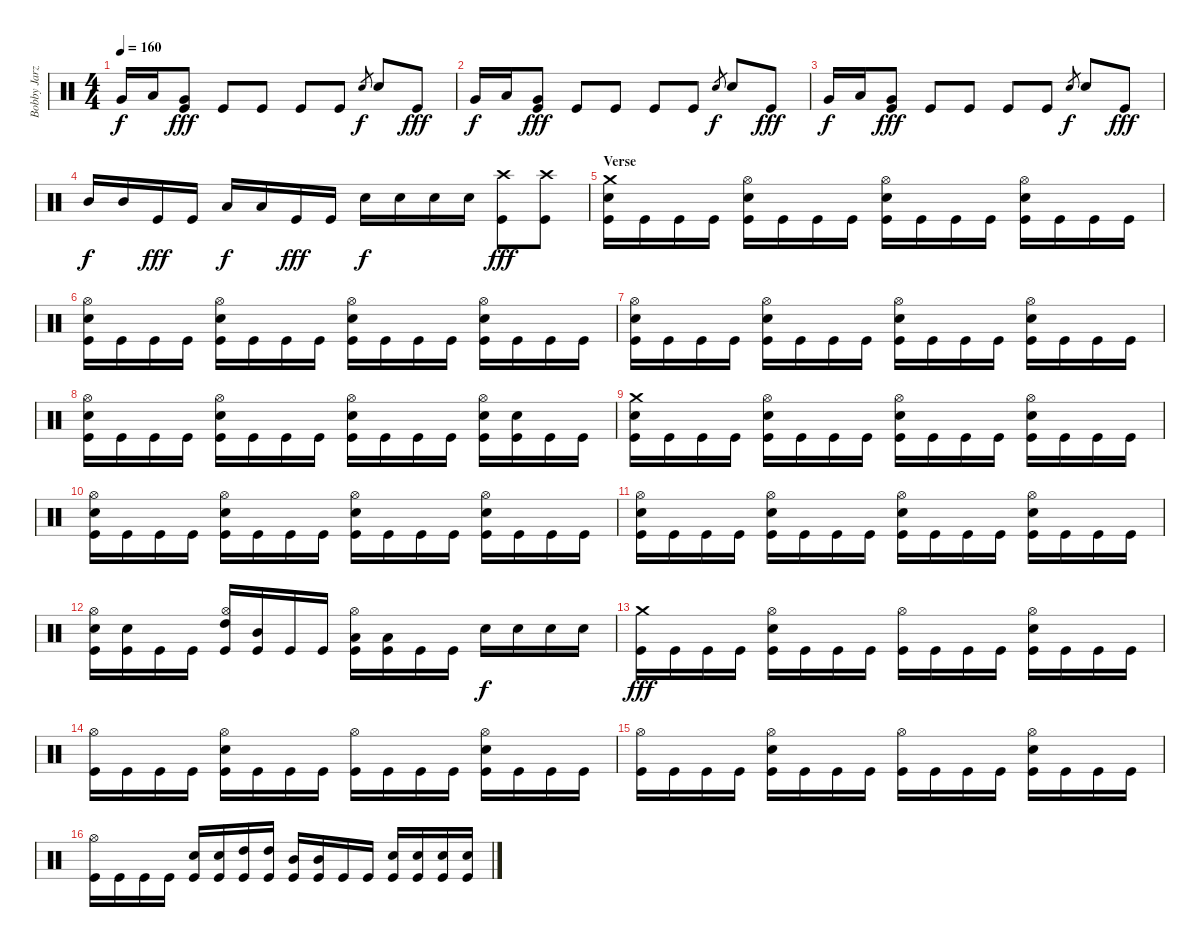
\track ("Bobby Jarzombek" "Bobby Jarz") {instrument percussion}
\staff {score}
\articulation defaults
\ts (4 4)
\tempo 160
\clef neutral
\ks c "Very Low Tom (hit)".16{dy f} "Low Tom (hit)".16
("Very Low Tom (hit)" "Kick (hit)").8{dy fff} "Kick (hit)".8 "Kick (hit)".8 "Kick (hit)".8 "Kick (hit)".8 "Electric Snare (hit)".8{gr dy f} "Electric Snare (hit)".8 "Kick (hit)".8{dy fff} |
"Very Low Tom (hit)".16{dy f} "Low Tom (hit)".16 ("Very Low Tom (hit)" "Kick (hit)").8{dy fff} "Kick (hit)".8 "Kick (hit)".8 "Kick (hit)".8 "Kick (hit)".8 "Electric Snare (hit)".8{gr dy f} "Electric Snare (hit)".8 "Kick (hit)".8{dy fff} |
"Very Low Tom (hit)".16{dy f} "Low Tom (hit)".16 ("Very Low Tom (hit)" "Kick (hit)").8{dy fff} "Kick (hit)".8 "Kick (hit)".8 "Kick (hit)".8 "Kick (hit)".8 "Electric Snare (hit)".8{gr dy f} "Electric Snare (hit)".8 "Kick (hit)".8{dy fff} |
"Mid Tom (hit)".16{dy f} "Mid Tom (hit)".16 "Kick (hit)".16{dy fff} "Kick (hit)".16 "Low Tom (hit)".16{dy f} "Low Tom (hit)".16 "Kick (hit)".16{dy fff} "Kick (hit)".16 "Electric Snare (hit)".16{dy f} "Electric Snare (hit)".16 "Electric Snare (hit)".16 "Electric Snare (hit)".16 ("Crash high (hit)" "Kick (hit)").8{dy fff} ("Crash high (hit)" "Kick (hit)").8 |
\section ("" "Verse")
("Crash medium (hit)" "Electric Snare (hit)" "Kick (hit)").16 "Kick (hit)".16 "Kick (hit)".16 "Kick (hit)".16 ("Hi-Hat (open)" "Electric Snare (hit)" "Kick (hit)").16 "Kick (hit)".16 "Kick (hit)".16 "Kick (hit)".16 ("Hi-Hat (open)" "Electric Snare (hit)" "Kick (hit)").16 "Kick (hit)".16 "Kick (hit)".16 "Kick (hit)".16 ("Hi-Hat (open)" "Electric Snare (hit)" "Kick (hit)").16 "Kick (hit)".16 "Kick (hit)".16 "Kick (hit)".16 |
("Hi-Hat (open)" "Electric Snare (hit)" "Kick (hit)").16 "Kick (hit)".16 "Kick (hit)".16 "Kick (hit)".16 ("Hi-Hat (open)" "Electric Snare (hit)" "Kick (hit)").16 "Kick (hit)".16 "Kick (hit)".16 "Kick (hit)".16 ("Hi-Hat (open)" "Electric Snare (hit)" "Kick (hit)").16 "Kick (hit)".16 "Kick (hit)".16 "Kick (hit)".16 ("Hi-Hat (open)" "Electric Snare (hit)" "Kick (hit)").16 "Kick (hit)".16 "Kick (hit)".16 "Kick (hit)".16 |
("Hi-Hat (open)" "Electric Snare (hit)" "Kick (hit)").16 "Kick (hit)".16 "Kick (hit)".16 "Kick (hit)".16 ("Hi-Hat (open)" "Electric Snare (hit)" "Kick (hit)").16 "Kick (hit)".16 "Kick (hit)".16 "Kick (hit)".16 ("Hi-Hat (open)" "Electric Snare (hit)" "Kick (hit)").16 "Kick (hit)".16 "Kick (hit)".16 "Kick (hit)".16 ("Hi-Hat (open)" "Electric Snare (hit)" "Kick (hit)").16 "Kick (hit)".16 "Kick (hit)".16 "Kick (hit)".16 |
("Hi-Hat (open)" "Electric Snare (hit)" "Kick (hit)").16 "Kick (hit)".16 "Kick (hit)".16 "Kick (hit)".16 ("Hi-Hat (open)" "Electric Snare (hit)" "Kick (hit)").16 "Kick (hit)".16 "Kick (hit)".16 "Kick (hit)".16 ("Hi-Hat (open)" "Electric Snare (hit)" "Kick (hit)").16 "Kick (hit)".16 "Kick (hit)".16 "Kick (hit)".16 ("Hi-Hat (open)" "Electric Snare (hit)" "Kick (hit)").16 ("Electric Snare (hit)" "Kick (hit)").16 "Kick (hit)".16 "Kick (hit)".16 |
("Crash medium (hit)" "Electric Snare (hit)" "Kick (hit)").16 "Kick (hit)".16 "Kick (hit)".16 "Kick (hit)".16 ("Hi-Hat (open)" "Electric Snare (hit)" "Kick (hit)").16 "Kick (hit)".16 "Kick (hit)".16 "Kick (hit)".16 ("Hi-Hat (open)" "Electric Snare (hit)" "Kick (hit)").16 "Kick (hit)".16 "Kick (hit)".16 "Kick (hit)".16 ("Hi-Hat (open)" "Electric Snare (hit)" "Kick (hit)").16 "Kick (hit)".16 "Kick (hit)".16 "Kick (hit)".16 |
("Hi-Hat (open)" "Electric Snare (hit)" "Kick (hit)").16 "Kick (hit)".16 "Kick (hit)".16 "Kick (hit)".16 ("Hi-Hat (open)" "Electric Snare (hit)" "Kick (hit)").16 "Kick (hit)".16 "Kick (hit)".16 "Kick (hit)".16 ("Hi-Hat (open)" "Electric Snare (hit)" "Kick (hit)").16 "Kick (hit)".16 "Kick (hit)".16 "Kick (hit)".16 ("Hi-Hat (open)" "Electric Snare (hit)" "Kick (hit)").16 "Kick (hit)".16 "Kick (hit)".16 "Kick (hit)".16 |
("Hi-Hat (open)" "Electric Snare (hit)" "Kick (hit)").16 "Kick (hit)".16 "Kick (hit)".16 "Kick (hit)".16 ("Hi-Hat (open)" "Electric Snare (hit)" "Kick (hit)").16 "Kick (hit)".16 "Kick (hit)".16 "Kick (hit)".16 ("Hi-Hat (open)" "Electric Snare (hit)" "Kick (hit)").16 "Kick (hit)".16 "Kick (hit)".16 "Kick (hit)".16 ("Hi-Hat (open)" "Electric Snare (hit)" "Kick (hit)").16 "Kick (hit)".16 "Kick (hit)".16 "Kick (hit)".16 |
("Hi-Hat (open)" "Electric Snare (hit)" "Kick (hit)").16 ("Electric Snare (hit)" "Kick (hit)").16 "Kick (hit)".16 "Kick (hit)".16 ("Hi-Hat (open)" "High Tom (hit)" "Kick (hit)").16 ("Mid Tom (hit)" "Kick (hit)").16 "Kick (hit)".16 "Kick (hit)".16 ("Hi-Hat (open)" "Low Tom (hit)" "Kick (hit)").16 ("Low Tom (hit)" "Kick (hit)").16 "Kick (hit)".16 "Kick (hit)".16 "Electric Snare (hit)".16{dy f} "Electric Snare (hit)".16 "Electric Snare (hit)".16 "Electric Snare (hit)".16 |
("Crash medium (hit)" "Kick (hit)").16{dy fff} "Kick (hit)".16 "Kick (hit)".16 "Kick (hit)".16 ("Hi-Hat (open)" "Electric Snare (hit)" "Kick (hit)").16 "Kick (hit)".16 "Kick (hit)".16 "Kick (hit)".16 ("Hi-Hat (open)" "Kick (hit)").16 "Kick (hit)".16 "Kick (hit)".16 "Kick (hit)".16 ("Hi-Hat (open)" "Electric Snare (hit)" "Kick (hit)").16 "Kick (hit)".16 "Kick (hit)".16 "Kick (hit)".16 |
("Hi-Hat (open)" "Kick (hit)").16 "Kick (hit)".16 "Kick (hit)".16 "Kick (hit)".16 ("Hi-Hat (open)" "Electric Snare (hit)" "Kick (hit)").16 "Kick (hit)".16 "Kick (hit)".16 "Kick (hit)".16 ("Hi-Hat (open)" "Kick (hit)").16 "Kick (hit)".16 "Kick (hit)".16 "Kick (hit)".16 ("Hi-Hat (open)" "Electric Snare (hit)" "Kick (hit)").16 "Kick (hit)".16 "Kick (hit)".16 "Kick (hit)".16 |
("Hi-Hat (open)" "Kick (hit)").16 "Kick (hit)".16 "Kick (hit)".16 "Kick (hit)".16 ("Hi-Hat (open)" "Electric Snare (hit)" "Kick (hit)").16 "Kick (hit)".16 "Kick (hit)".16 "Kick (hit)".16 ("Hi-Hat (open)" "Kick (hit)").16 "Kick (hit)".16 "Kick (hit)".16 "Kick (hit)".16 ("Hi-Hat (open)" "Electric Snare (hit)" "Kick (hit)").16 "Kick (hit)".16 "Kick (hit)".16 "Kick (hit)".16 |
("Hi-Hat (open)" "Kick (hit)").16 "Kick (hit)".16 "Kick (hit)".16 "Kick (hit)".16 ("Electric Snare (hit)" "Kick (hit)").16 ("Electric Snare (hit)" "Kick (hit)").16 ("High Tom (hit)" "Kick (hit)").16 ("High Tom (hit)" "Kick (hit)").16 ("Mid Tom (hit)" "Kick (hit)").16 ("Mid Tom (hit)" "Kick (hit)").16 "Kick (hit)".16 "Kick (hit)".16 ("Electric Snare (hit)" "Kick (hit)").16 ("Electric Snare (hit)" "Kick (hit)").16 ("Electric Snare (hit)" "Kick (hit)").16 ("Electric Snare (hit)" "Kick (hit)").16
